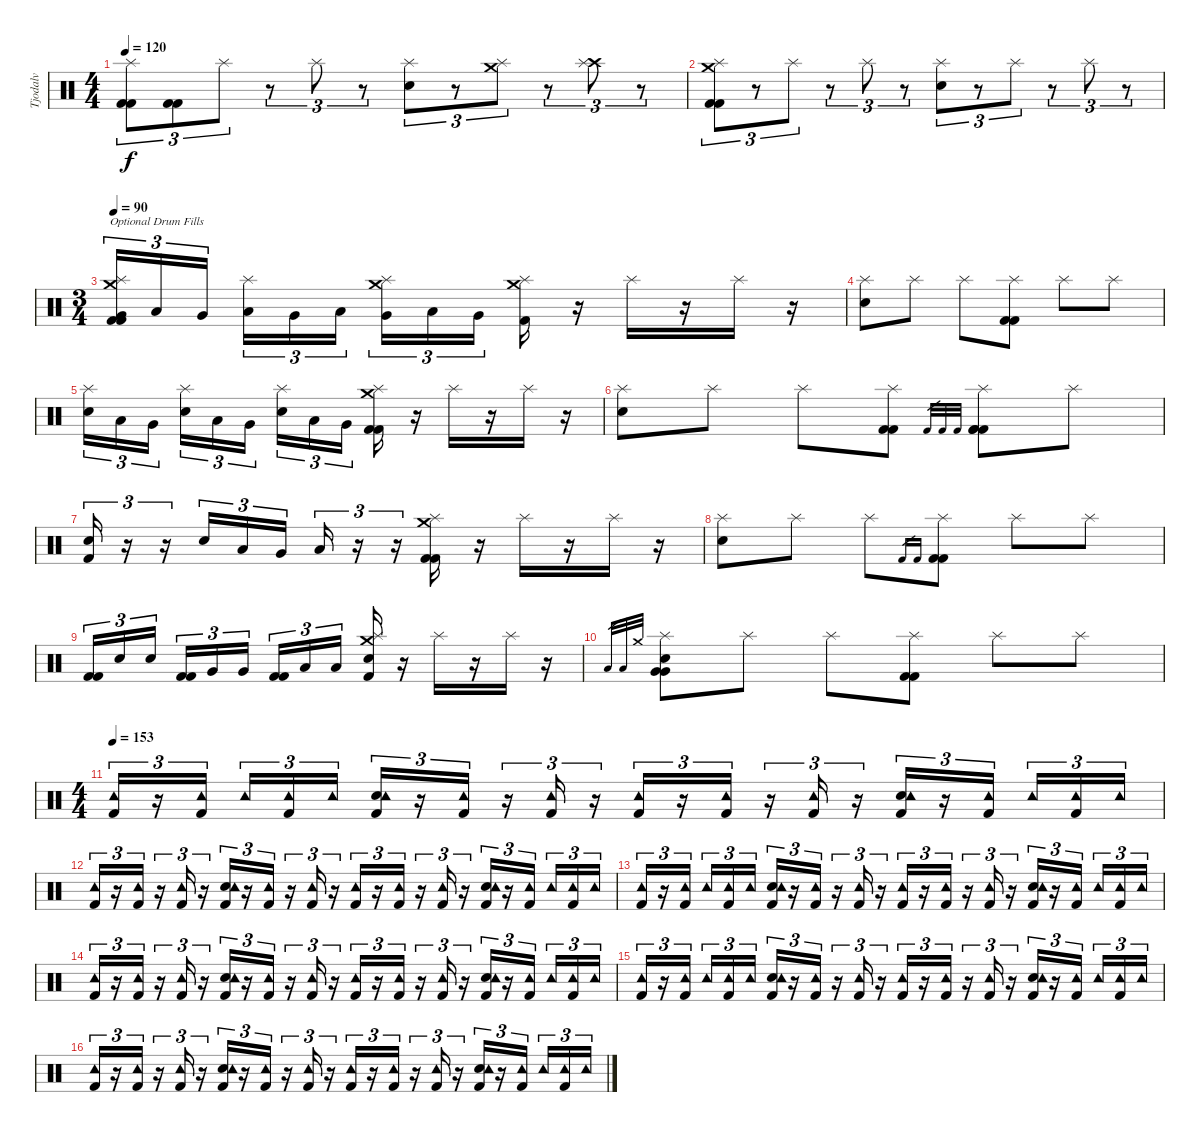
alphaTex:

\track ("Tjodalv" "Tjodalv") {instrument percussion}
\staff {score}
\articulation defaults
\ts (4 4)
\tempo 120
\clef neutral
\ks c
("Kick (hit) 2" "Kick (hit) 2" "Splash (hit)").8{tu (3 2) dy f} ("Kick (hit) 2" "Kick (hit) 2").8{tu (3 2)} "Splash (hit)".8{tu (3 2)} r.8{tu (3 2)} "Splash (hit)".8{tu (3 2)} r.8{tu (3 2)} ("Snare (hit) 2" "Splash (hit)").8{tu (3 2)} r.8{tu (3 2)} ("Crash medium (hit)" "Splash (hit)").8{tu (3 2)} r.8{tu (3 2)} ("Crash high (hit)" "Splash (hit)").8{tu (3 2)} r.8{tu (3 2)} |
("Kick (hit) 2" "Kick (hit) 2" "Crash medium (hit)" "Splash (hit)").8{tu (3 2)} r.8{tu (3 2)} "Splash (hit)".8{tu (3 2)} r.8{tu (3 2)} "Splash (hit)".8{tu (3 2)} r.8{tu (3 2)} ("Snare (hit) 2" "Splash (hit)").8{tu (3 2)} r.8{tu (3 2)} "Splash (hit)".8{tu (3 2)} r.8{tu (3 2)} "Splash (hit)".8{tu (3 2)} r.8{tu (3 2)} |
\ts (3 4)
\tempo 90
("Very Low Tom (hit)" "Kick (hit) 2" "Kick (hit) 2" "Crash medium (hit)" "Splash (hit)").16{tu (3 2) txt "Optional Drum Fills" volume 16} "Low Tom (hit)".16{tu (3 2)} "Very Low Tom (hit)".16{tu (3 2)} ("Low Tom (hit)" "Splash (hit)").16{tu (3 2)} "Very Low Tom (hit)".16{tu (3 2)} "Low Tom (hit)".16{tu (3 2)} ("Very Low Tom (hit)" "Crash medium (hit)" "Splash (hit)").16{tu (3 2)} "Low Tom (hit)".16{tu (3 2)} "Very Low Tom (hit)".16{tu (3 2)} ("Kick (hit) 2" "Crash medium (hit)" "Splash (hit)").16 r.16 "Splash (hit)".16 r.16 "Splash (hit)".16 r.16 |
("Snare (hit) 2" "Splash (hit)").8 "Splash (hit)".8 "Splash (hit)".8 ("Kick (hit) 2" "Kick (hit) 2" "Splash (hit)").8 "Splash (hit)".8 "Splash (hit)".8 |
("Snare (hit) 2" "Splash (hit)").16{tu (3 2)} "Low Tom (hit)".16{tu (3 2)} "Very Low Tom (hit)".16{tu (3 2)} ("Snare (hit) 2" "Splash (hit)").16{tu (3 2)} "Low Tom (hit)".16{tu (3 2)} "Very Low Tom (hit)".16{tu (3 2)} ("Snare (hit) 2" "Splash (hit)").16{tu (3 2)} "Low Tom (hit)".16{tu (3 2)} "Very Low Tom (hit)".16{tu (3 2)} ("Kick (hit) 2" "Kick (hit) 2" "Crash medium (hit)" "Splash (hit)").16 r.16 "Splash (hit)".16 r.16 "Splash (hit)".16 r.16 |
("Snare (hit) 2" "Splash (hit)").8 "Splash (hit)".8 "Splash (hit)".8 ("Kick (hit) 2" "Kick (hit) 2" "Splash (hit)").8 "Kick (hit) 2".32{gr} "Kick (hit) 2".32{gr} "Kick (hit) 2".32{gr} ("Kick (hit) 2" "Kick (hit) 2" "Kick (hit) 2" "Splash (hit)").8 "Splash (hit)".8 |
("Kick (hit) 2" "Snare (hit) 2").16{tu (3 2)} r.16{tu (3 2)} r.16{tu (3 2)} "Snare (hit) 2".16{tu (3 2)} "Low Tom (hit)".16{tu (3 2)} "Very Low Tom (hit)".16{tu (3 2)} "Low Tom (hit)".16{tu (3 2)} r.16{tu (3 2)} r.16{tu (3 2)} ("Kick (hit) 2" "Kick (hit) 2" "Splash (hit)" "Crash medium (hit)").16 r.16 "Splash (hit)".16 r.16 "Splash (hit)".16 r.16 |
("Snare (hit) 2" "Splash (hit)").8 "Splash (hit)".8 "Splash (hit)".8 "Kick (hit) 2".16{gr} "Kick (hit) 2".16{gr} ("Kick (hit) 2" "Kick (hit) 2" "Splash (hit)").8 "Splash (hit)".8 "Splash (hit)".8 |
("Kick (hit) 2" "Kick (hit) 2").16{tu (3 2)} "Snare (hit) 2".16{tu (3 2)} "Snare (hit) 2".16{tu (3 2)} ("Kick (hit) 2" "Kick (hit) 2").16{tu (3 2)} "Very Low Tom (hit)".16{tu (3 2)} "Very Low Tom (hit)".16{tu (3 2)} ("Kick (hit) 2" "Kick (hit) 2").16{tu (3 2)} "Low Tom (hit)".16{tu (3 2)} "Low Tom (hit)".16{tu (3 2)} ("Kick (hit) 2" "Metronome (bell)" "Splash (hit)" "Crash medium (hit)").16 r.16 "Splash (hit)".16 r.16 "Splash (hit)".16 r.16 |
"Low Tom (hit)".32{gr} "Low Tom (hit)".32{gr} "Crash medium (hit)".32{gr} ("Very Low Tom (hit)" "Very Low Tom (hit)" "Snare (hit) 2" "Splash (hit)").8 "Splash (hit)".8 "Splash (hit)".8 ("Kick (hit) 2" "Kick (hit) 2" "Splash (hit)").8 "Splash (hit)".8 "Splash (hit)".8 |
\ts (4 4)
\tempo 153
("Kick (hit) 2" "Tambourine (hit)").16{tu (3 2) volume 15} r.16{tu (3 2)} ("Kick (hit) 2" "Tambourine (hit)").16{tu (3 2)} "Tambourine (hit)".16{tu (3 2)} ("Kick (hit) 2" "Tambourine (hit)").16{tu (3 2)} "Tambourine (hit)".16{tu (3 2)} ("Kick (hit) 2" "Snare (hit) 2" "Tambourine (hit)").16{tu (3 2)} r.16{tu (3 2)} ("Kick (hit) 2" "Tambourine (hit)").16{tu (3 2)} r.16{tu (3 2)} ("Kick (hit) 2" "Tambourine (hit)").16{tu (3 2)} r.16{tu (3 2)} ("Kick (hit) 2" "Tambourine (hit)").16{tu (3 2)} r.16{tu (3 2)} ("Kick (hit) 2" "Tambourine (hit)").16{tu (3 2)} r.16{tu (3 2)} ("Kick (hit) 2" "Tambourine (hit)").16{tu (3 2)} r.16{tu (3 2)} ("Kick (hit) 2" "Snare (hit) 2" "Tambourine (hit)").16{tu (3 2)} r.16{tu (3 2)} ("Kick (hit) 2" "Tambourine (hit)").16{tu (3 2)} "Tambourine (hit)".16{tu (3 2)} ("Kick (hit) 2" "Tambourine (hit)").16{tu (3 2)} "Tambourine (hit)".16{tu (3 2)} |
("Kick (hit) 2" "Tambourine (hit)").16{tu (3 2)} r.16{tu (3 2)} ("Kick (hit) 2" "Tambourine (hit)").16{tu (3 2)} r.16{tu (3 2)} ("Kick (hit) 2" "Tambourine (hit)").16{tu (3 2)} r.16{tu (3 2)} ("Kick (hit) 2" "Snare (hit) 2" "Tambourine (hit)").16{tu (3 2)} r.16{tu (3 2)} ("Kick (hit) 2" "Tambourine (hit)").16{tu (3 2)} r.16{tu (3 2)} ("Kick (hit) 2" "Tambourine (hit)").16{tu (3 2)} r.16{tu (3 2)} ("Kick (hit) 2" "Tambourine (hit)").16{tu (3 2)} r.16{tu (3 2)} ("Kick (hit) 2" "Tambourine (hit)").16{tu (3 2)} r.16{tu (3 2)} ("Kick (hit) 2" "Tambourine (hit)").16{tu (3 2)} r.16{tu (3 2)} ("Kick (hit) 2" "Snare (hit) 2" "Tambourine (hit)").16{tu (3 2)} r.16{tu (3 2)} ("Kick (hit) 2" "Tambourine (hit)").16{tu (3 2)} "Tambourine (hit)".16{tu (3 2)} ("Kick (hit) 2" "Tambourine (hit)").16{tu (3 2)} "Tambourine (hit)".16{tu (3 2)} |
("Kick (hit) 2" "Tambourine (hit)").16{tu (3 2)} r.16{tu (3 2)} ("Kick (hit) 2" "Tambourine (hit)").16{tu (3 2)} "Tambourine (hit)".16{tu (3 2)} ("Kick (hit) 2" "Tambourine (hit)").16{tu (3 2)} "Tambourine (hit)".16{tu (3 2)} ("Kick (hit) 2" "Snare (hit) 2" "Tambourine (hit)").16{tu (3 2)} r.16{tu (3 2)} ("Kick (hit) 2" "Tambourine (hit)").16{tu (3 2)} r.16{tu (3 2)} ("Kick (hit) 2" "Tambourine (hit)").16{tu (3 2)} r.16{tu (3 2)} ("Kick (hit) 2" "Tambourine (hit)").16{tu (3 2)} r.16{tu (3 2)} ("Kick (hit) 2" "Tambourine (hit)").16{tu (3 2)} r.16{tu (3 2)} ("Kick (hit) 2" "Tambourine (hit)").16{tu (3 2)} r.16{tu (3 2)} ("Kick (hit) 2" "Snare (hit) 2" "Tambourine (hit)").16{tu (3 2)} r.16{tu (3 2)} ("Kick (hit) 2" "Tambourine (hit)").16{tu (3 2)} "Tambourine (hit)".16{tu (3 2)} ("Kick (hit) 2" "Tambourine (hit)").16{tu (3 2)} "Tambourine (hit)".16{tu (3 2)} |
("Kick (hit) 2" "Tambourine (hit)").16{tu (3 2)} r.16{tu (3 2)} ("Kick (hit) 2" "Tambourine (hit)").16{tu (3 2)} r.16{tu (3 2)} ("Kick (hit) 2" "Tambourine (hit)").16{tu (3 2)} r.16{tu (3 2)} ("Kick (hit) 2" "Snare (hit) 2" "Tambourine (hit)").16{tu (3 2)} r.16{tu (3 2)} ("Kick (hit) 2" "Tambourine (hit)").16{tu (3 2)} r.16{tu (3 2)} ("Kick (hit) 2" "Tambourine (hit)").16{tu (3 2)} r.16{tu (3 2)} ("Kick (hit) 2" "Tambourine (hit)").16{tu (3 2)} r.16{tu (3 2)} ("Kick (hit) 2" "Tambourine (hit)").16{tu (3 2)} r.16{tu (3 2)} ("Kick (hit) 2" "Tambourine (hit)").16{tu (3 2)} r.16{tu (3 2)} ("Kick (hit) 2" "Snare (hit) 2" "Tambourine (hit)").16{tu (3 2)} r.16{tu (3 2)} ("Kick (hit) 2" "Tambourine (hit)").16{tu (3 2)} "Tambourine (hit)".16{tu (3 2)} ("Kick (hit) 2" "Tambourine (hit)").16{tu (3 2)} "Tambourine (hit)".16{tu (3 2)} |
("Kick (hit) 2" "Tambourine (hit)").16{tu (3 2) volume 12} r.16{tu (3 2)} ("Kick (hit) 2" "Tambourine (hit)").16{tu (3 2)} "Tambourine (hit)".16{tu (3 2)} ("Kick (hit) 2" "Tambourine (hit)").16{tu (3 2)} "Tambourine (hit)".16{tu (3 2)} ("Kick (hit) 2" "Snare (hit) 2" "Tambourine (hit)").16{tu (3 2)} r.16{tu (3 2)} ("Kick (hit) 2" "Tambourine (hit)").16{tu (3 2)} r.16{tu (3 2)} ("Kick (hit) 2" "Tambourine (hit)").16{tu (3 2)} r.16{tu (3 2)} ("Kick (hit) 2" "Tambourine (hit)").16{tu (3 2)} r.16{tu (3 2)} ("Kick (hit) 2" "Tambourine (hit)").16{tu (3 2)} r.16{tu (3 2)} ("Kick (hit) 2" "Tambourine (hit)").16{tu (3 2)} r.16{tu (3 2)} ("Kick (hit) 2" "Snare (hit) 2" "Tambourine (hit)").16{tu (3 2)} r.16{tu (3 2)} ("Kick (hit) 2" "Tambourine (hit)").16{tu (3 2)} "Tambourine (hit)".16{tu (3 2)} ("Kick (hit) 2" "Tambourine (hit)").16{tu (3 2)} "Tambourine (hit)".16{tu (3 2)} |
("Kick (hit) 2" "Tambourine (hit)").16{tu (3 2)} r.16{tu (3 2)} ("Kick (hit) 2" "Tambourine (hit)").16{tu (3 2)} r.16{tu (3 2)} ("Kick (hit) 2" "Tambourine (hit)").16{tu (3 2)} r.16{tu (3 2)} ("Kick (hit) 2" "Snare (hit) 2" "Tambourine (hit)").16{tu (3 2)} r.16{tu (3 2)} ("Kick (hit) 2" "Tambourine (hit)").16{tu (3 2)} r.16{tu (3 2)} ("Kick (hit) 2" "Tambourine (hit)").16{tu (3 2)} r.16{tu (3 2)} ("Kick (hit) 2" "Tambourine (hit)").16{tu (3 2)} r.16{tu (3 2)} ("Kick (hit) 2" "Tambourine (hit)").16{tu (3 2)} r.16{tu (3 2)} ("Kick (hit) 2" "Tambourine (hit)").16{tu (3 2)} r.16{tu (3 2)} ("Kick (hit) 2" "Snare (hit) 2" "Tambourine (hit)").16{tu (3 2)} r.16{tu (3 2)} ("Kick (hit) 2" "Tambourine (hit)").16{tu (3 2)} "Tambourine (hit)".16{tu (3 2)} ("Kick (hit) 2" "Tambourine (hit)").16{tu (3 2)} "Tambourine (hit)".16{tu (3 2)}
